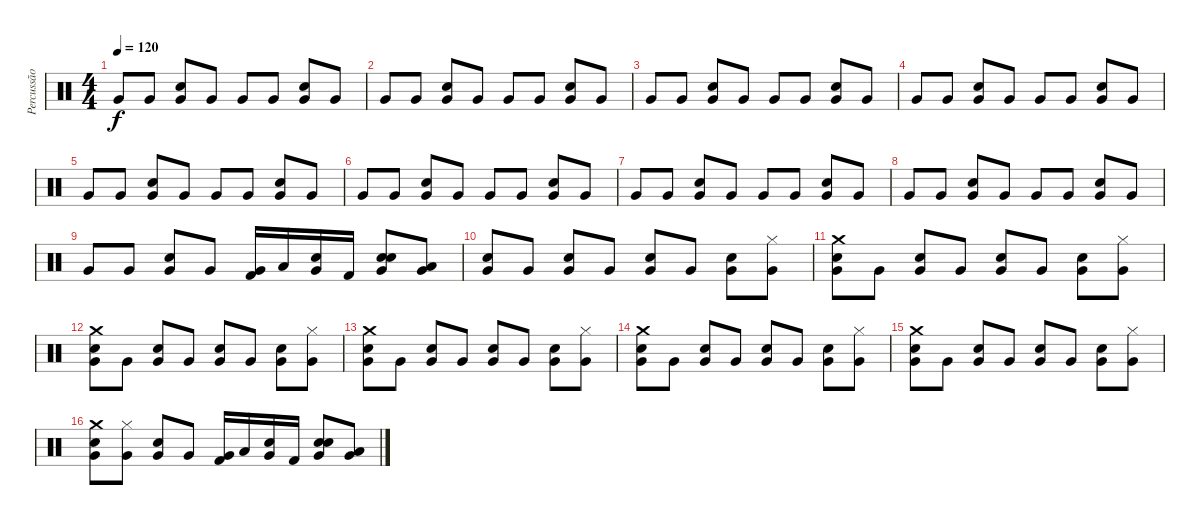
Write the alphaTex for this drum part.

\track ("Percussão" "Percussão") {instrument percussion}
\staff {score}
\articulation defaults
\ts (4 4)
\tempo 120
\clef neutral
\ks c "Very Low Tom (hit)".8{dy f} "Very Low Tom (hit)".8
("Very Low Tom (hit)" "Snare (hit) 2").8 "Very Low Tom (hit)".8 "Very Low Tom (hit)".8 "Very Low Tom (hit)".8 ("Very Low Tom (hit)" "Snare (hit) 2").8 "Very Low Tom (hit)".8 |
"Very Low Tom (hit)".8 "Very Low Tom (hit)".8 ("Very Low Tom (hit)" "Snare (hit) 2").8 "Very Low Tom (hit)".8 "Very Low Tom (hit)".8 "Very Low Tom (hit)".8 ("Very Low Tom (hit)" "Snare (hit) 2").8 "Very Low Tom (hit)".8 |
"Very Low Tom (hit)".8 "Very Low Tom (hit)".8 ("Very Low Tom (hit)" "Snare (hit) 2").8 "Very Low Tom (hit)".8 "Very Low Tom (hit)".8 "Very Low Tom (hit)".8 ("Very Low Tom (hit)" "Snare (hit) 2").8 "Very Low Tom (hit)".8 |
"Very Low Tom (hit)".8 "Very Low Tom (hit)".8 ("Very Low Tom (hit)" "Snare (hit) 2").8 "Very Low Tom (hit)".8 "Very Low Tom (hit)".8 "Very Low Tom (hit)".8 ("Very Low Tom (hit)" "Snare (hit) 2").8 "Very Low Tom (hit)".8 |
"Very Low Tom (hit)".8 "Very Low Tom (hit)".8 ("Very Low Tom (hit)" "Snare (hit) 2").8 "Very Low Tom (hit)".8 "Very Low Tom (hit)".8 "Very Low Tom (hit)".8 ("Very Low Tom (hit)" "Snare (hit) 2").8 "Very Low Tom (hit)".8 |
"Very Low Tom (hit)".8 "Very Low Tom (hit)".8 ("Very Low Tom (hit)" "Snare (hit) 2").8 "Very Low Tom (hit)".8 "Very Low Tom (hit)".8 "Very Low Tom (hit)".8 ("Very Low Tom (hit)" "Snare (hit) 2").8 "Very Low Tom (hit)".8 |
"Very Low Tom (hit)".8 "Very Low Tom (hit)".8 ("Very Low Tom (hit)" "Snare (hit) 2").8 "Very Low Tom (hit)".8 "Very Low Tom (hit)".8 "Very Low Tom (hit)".8 ("Very Low Tom (hit)" "Snare (hit) 2").8 "Very Low Tom (hit)".8 |
"Very Low Tom (hit)".8 "Very Low Tom (hit)".8 ("Very Low Tom (hit)" "Snare (hit) 2").8 "Very Low Tom (hit)".8 "Very Low Tom (hit)".8 "Very Low Tom (hit)".8 ("Very Low Tom (hit)" "Snare (hit) 2").8 "Very Low Tom (hit)".8 |
"Very Low Tom (hit)".8 "Very Low Tom (hit)".8 ("Very Low Tom (hit)" "Snare (hit) 2").8 "Very Low Tom (hit)".8 ("Very Low Tom (hit)" "Kick (hit) 2").16 "Low Tom (hit)".16 ("Very Low Tom (hit)" "Snare (hit) 2").16 "Kick (hit) 2".16 ("Very Low Tom (hit)" "Electric Snare (hit)" "Snare (hit) 2").8 ("Very Low Tom (hit)" "Low Tom (hit)").8 |
("Very Low Tom (hit)" "Snare (hit) 2").8 "Very Low Tom (hit)".8 ("Very Low Tom (hit)" "Snare (hit) 2").8 "Very Low Tom (hit)".8 ("Very Low Tom (hit)" "Snare (hit) 2").8 "Very Low Tom (hit)".8 ("Very Low Tom (hit)" "Snare (hit) 2").8 ("Very Low Tom (hit)" "Hi-Hat (closed)").8 |
("Very Low Tom (hit)" "Crash medium (hit)" "Snare (hit) 2").8 "Very Low Tom (hit)".8 ("Very Low Tom (hit)" "Snare (hit) 2").8 "Very Low Tom (hit)".8 ("Very Low Tom (hit)" "Snare (hit) 2").8 "Very Low Tom (hit)".8 ("Very Low Tom (hit)" "Snare (hit) 2").8 ("Very Low Tom (hit)" "Hi-Hat (closed)").8 |
("Very Low Tom (hit)" "Crash medium (hit)" "Snare (hit) 2").8 "Very Low Tom (hit)".8 ("Very Low Tom (hit)" "Snare (hit) 2").8 "Very Low Tom (hit)".8 ("Very Low Tom (hit)" "Snare (hit) 2").8 "Very Low Tom (hit)".8 ("Very Low Tom (hit)" "Snare (hit) 2").8 ("Very Low Tom (hit)" "Hi-Hat (closed)").8 |
("Very Low Tom (hit)" "Crash medium (hit)" "Snare (hit) 2").8 "Very Low Tom (hit)".8 ("Very Low Tom (hit)" "Snare (hit) 2").8 "Very Low Tom (hit)".8 ("Very Low Tom (hit)" "Snare (hit) 2").8 "Very Low Tom (hit)".8 ("Very Low Tom (hit)" "Snare (hit) 2").8 ("Very Low Tom (hit)" "Hi-Hat (closed)").8 |
("Very Low Tom (hit)" "Crash medium (hit)" "Snare (hit) 2").8 "Very Low Tom (hit)".8 ("Very Low Tom (hit)" "Snare (hit) 2").8 "Very Low Tom (hit)".8 ("Very Low Tom (hit)" "Snare (hit) 2").8 "Very Low Tom (hit)".8 ("Very Low Tom (hit)" "Snare (hit) 2").8 ("Very Low Tom (hit)" "Hi-Hat (closed)").8 |
("Very Low Tom (hit)" "Crash medium (hit)" "Snare (hit) 2").8 "Very Low Tom (hit)".8 ("Very Low Tom (hit)" "Snare (hit) 2").8 "Very Low Tom (hit)".8 ("Very Low Tom (hit)" "Snare (hit) 2").8 "Very Low Tom (hit)".8 ("Very Low Tom (hit)" "Snare (hit) 2").8 ("Very Low Tom (hit)" "Hi-Hat (closed)").8 |
("Very Low Tom (hit)" "Crash medium (hit)" "Snare (hit) 2").8 ("Very Low Tom (hit)" "Hi-Hat (closed)").8 ("Very Low Tom (hit)" "Snare (hit) 2").8 "Very Low Tom (hit)".8 ("Very Low Tom (hit)" "Kick (hit) 2").16 "Low Tom (hit)".16 ("Very Low Tom (hit)" "Snare (hit) 2").16 "Kick (hit) 2".16 ("Very Low Tom (hit)" "Electric Snare (hit)" "Snare (hit) 2").8 ("Very Low Tom (hit)" "Low Tom (hit)").8
